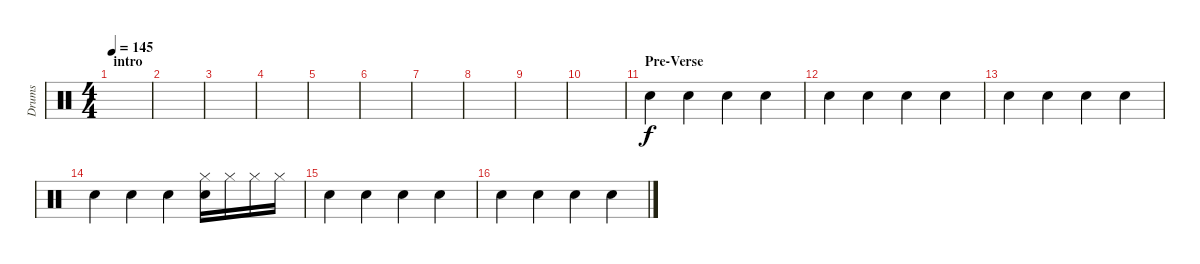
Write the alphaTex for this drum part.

\track ("Drums" "Drums") {instrument percussion}
\staff {score}
\articulation defaults
\ts (4 4)
\section ("" "intro")
\tempo 145
\clef neutral
\ks c
|
|
|
|
|
|
|
|
|
|
\section ("" "Pre-Verse")
"Electric Snare (hit)".4 "Electric Snare (hit)".4 "Electric Snare (hit)".4 "Electric Snare (hit)".4 |
"Electric Snare (hit)".4 "Electric Snare (hit)".4 "Electric Snare (hit)".4 "Electric Snare (hit)".4 |
"Electric Snare (hit)".4 "Electric Snare (hit)".4 "Electric Snare (hit)".4 "Electric Snare (hit)".4 |
"Electric Snare (hit)".4 "Electric Snare (hit)".4 "Electric Snare (hit)".4 ("Hi-Hat (closed)" "Electric Snare (hit)").16 "Hi-Hat (closed)".16 "Hi-Hat (closed)".16 "Hi-Hat (closed)".16 |
"Electric Snare (hit)".4 "Electric Snare (hit)".4 "Electric Snare (hit)".4 "Electric Snare (hit)".4 |
"Electric Snare (hit)".4 "Electric Snare (hit)".4 "Electric Snare (hit)".4 "Electric Snare (hit)".4
